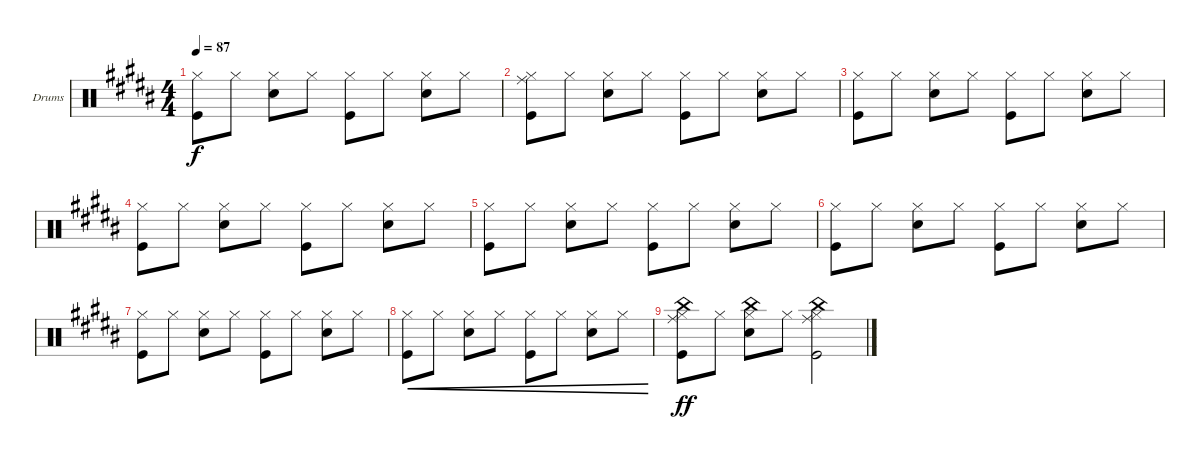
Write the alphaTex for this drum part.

\defaultSystemsLayout 4
\bracketExtendMode groupsimilarinstruments
\firstSystemTrackNameOrientation horizontal
\otherSystemsTrackNameOrientation horizontal
\track ("Drumkit" "Drums") {instrument percussion}
\staff {score}
\articulation defaults
\ts (4 4)
\tempo 87
\clef neutral
\ks b
("Kick (hit)" "Hi-Hat (closed)").8{dy f} "Hi-Hat (closed)".8 ("Snare (hit) 2" "Hi-Hat (closed)").8 "Hi-Hat (closed)".8 ("Kick (hit)" "Hi-Hat (closed)").8 "Hi-Hat (closed)".8 ("Snare (hit) 2" "Hi-Hat (closed)").8 "Hi-Hat (closed)".8 |
("Kick (hit)" "Hi-Hat (closed)" "Ride (middle)").8 "Hi-Hat (closed)".8 ("Snare (hit) 2" "Hi-Hat (closed)").8 "Hi-Hat (closed)".8 ("Kick (hit)" "Hi-Hat (closed)").8 "Hi-Hat (closed)".8 ("Snare (hit) 2" "Hi-Hat (closed)").8 "Hi-Hat (closed)".8 |
("Kick (hit)" "Hi-Hat (closed)").8 "Hi-Hat (closed)".8 ("Snare (hit) 2" "Hi-Hat (closed)").8 "Hi-Hat (closed)".8 ("Kick (hit)" "Hi-Hat (closed)").8 "Hi-Hat (closed)".8 ("Snare (hit) 2" "Hi-Hat (closed)").8 "Hi-Hat (closed)".8 |
("Kick (hit)" "Hi-Hat (closed)").8 "Hi-Hat (closed)".8 ("Snare (hit) 2" "Hi-Hat (closed)").8 "Hi-Hat (closed)".8 ("Kick (hit)" "Hi-Hat (closed)").8 "Hi-Hat (closed)".8 ("Snare (hit) 2" "Hi-Hat (closed)").8 "Hi-Hat (closed)".8 |
("Kick (hit)" "Hi-Hat (closed)").8 "Hi-Hat (closed)".8 ("Snare (hit) 2" "Hi-Hat (closed)").8 "Hi-Hat (closed)".8 ("Kick (hit)" "Hi-Hat (closed)").8 "Hi-Hat (closed)".8 ("Snare (hit) 2" "Hi-Hat (closed)").8 "Hi-Hat (closed)".8 |
("Kick (hit)" "Hi-Hat (closed)").8 "Hi-Hat (closed)".8 ("Snare (hit) 2" "Hi-Hat (closed)").8 "Hi-Hat (closed)".8 ("Kick (hit)" "Hi-Hat (closed)").8 "Hi-Hat (closed)".8 ("Snare (hit) 2" "Hi-Hat (closed)").8 "Hi-Hat (closed)".8 |
("Kick (hit)" "Hi-Hat (closed)").8 "Hi-Hat (closed)".8 ("Snare (hit) 2" "Hi-Hat (closed)").8 "Hi-Hat (closed)".8 ("Kick (hit)" "Hi-Hat (closed)").8 "Hi-Hat (closed)".8 ("Snare (hit) 2" "Hi-Hat (closed)").8 "Hi-Hat (closed)".8 |
("Kick (hit)" "Hi-Hat (closed)").8{cre} "Hi-Hat (closed)".8{cre} ("Snare (hit) 2" "Hi-Hat (closed)").8{cre} "Hi-Hat (closed)".8{cre} ("Kick (hit)" "Hi-Hat (closed)").8{cre} "Hi-Hat (closed)".8{cre} ("Snare (hit) 2" "Hi-Hat (closed)").8{cre} "Hi-Hat (closed)".8{cre} |
("Kick (hit)" "Hi-Hat (closed)" "China (hit)" "Ride (middle)").8{dy ff} "Hi-Hat (closed)".8 ("Snare (hit) 2" "Hi-Hat (closed)" "China (hit)").8 "Hi-Hat (closed)".8 ("Kick (hit)" "Hi-Hat (closed)" "China (hit)" "Ride (middle)").2
